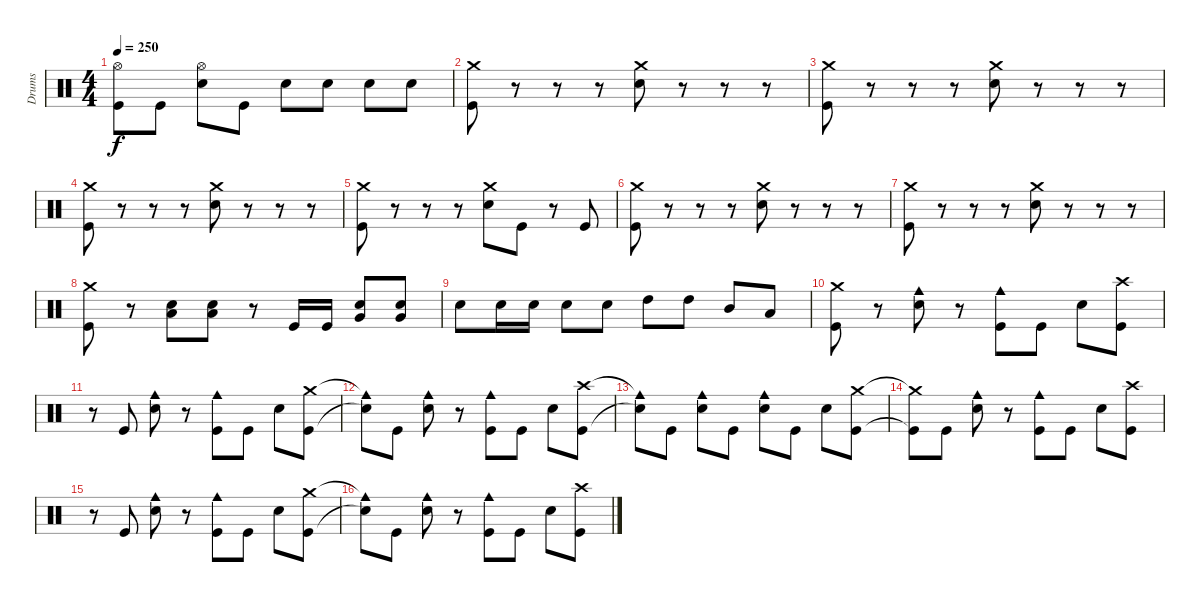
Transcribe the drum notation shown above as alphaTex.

\track ("Drums" "Drums") {instrument percussion}
\staff {score}
\articulation defaults
\ts (4 4)
\tempo 250
\clef neutral
\ks c
("Hi-Hat (open)" "Kick (hit)").8{dy f} "Kick (hit)".8 ("Hi-Hat (open)" "Electric Snare (hit)").8 "Kick (hit)".8 "Electric Snare (hit)".8 "Electric Snare (hit)".8 "Electric Snare (hit)".8 "Electric Snare (hit)".8 |
("Crash medium (hit)" "Kick (hit)").8 r.8 r.8 r.8 ("Crash medium (hit)" "Electric Snare (hit)").8 r.8 r.8 r.8 |
("Crash medium (hit)" "Kick (hit)").8 r.8 r.8 r.8 ("Crash medium (hit)" "Electric Snare (hit)").8 r.8 r.8 r.8 |
("Crash medium (hit)" "Kick (hit)").8 r.8 r.8 r.8 ("Crash medium (hit)" "Electric Snare (hit)").8 r.8 r.8 r.8 |
("Crash medium (hit)" "Kick (hit)").8 r.8 r.8 r.8 ("Crash medium (hit)" "Electric Snare (hit)").8 "Kick (hit)".8 r.8 "Kick (hit)".8 |
("Crash medium (hit)" "Kick (hit)").8 r.8 r.8 r.8 ("Crash medium (hit)" "Electric Snare (hit)").8 r.8 r.8 r.8 |
("Crash medium (hit)" "Kick (hit)").8 r.8 r.8 r.8 ("Crash medium (hit)" "Electric Snare (hit)").8 r.8 r.8 r.8 |
("Crash medium (hit)" "Kick (hit)").8 r.8 ("Low Floor Tom (hit)" "Electric Snare (hit)").8 ("Low Floor Tom (hit)" "Electric Snare (hit)").8 r.8 "Kick (hit)".16 "Kick (hit)".16 ("Very Low Tom (hit)" "Electric Snare (hit)").8 ("Very Low Tom (hit)" "Electric Snare (hit)").8 |
"Electric Snare (hit)".8 "Electric Snare (hit)".16 "Electric Snare (hit)".16 "Electric Snare (hit)".8 "Electric Snare (hit)".8 "High Tom (hit)".8 "High Tom (hit)".8 "Mid Tom (hit)".8 "Low Tom (hit)".8 |
("Crash medium (hit)" "Kick (hit)").8 r.8 ("Cowbell medium (hit)" "Electric Snare (hit)").8 r.8 ("Cowbell medium (hit)" "Kick (hit)").8 "Kick (hit)".8 "Electric Snare (hit)".8 ("Crash high (hit)" "Kick (hit)").8 |
r.8 "Kick (hit)".8 ("Cowbell medium (hit)" "Electric Snare (hit)").8 r.8 ("Cowbell medium (hit)" "Kick (hit)").8 "Kick (hit)".8 "Electric Snare (hit)".8 ("Crash medium (hit)" "Kick (hit)").8 |
("Cowbell medium (hit)"{t} "Snare (hit)"{t}).8 "Kick (hit)".8 ("Cowbell medium (hit)" "Electric Snare (hit)").8 r.8 ("Cowbell medium (hit)" "Kick (hit)").8 "Kick (hit)".8 "Electric Snare (hit)".8 ("Crash high (hit)" "Kick (hit)").8 |
("Cowbell medium (hit)"{t} "Snare (hit)"{t}).8 "Kick (hit)".8 ("Cowbell medium (hit)" "Electric Snare (hit)").8 "Kick (hit)".8 ("Cowbell medium (hit)" "Electric Snare (hit)").8 "Kick (hit)".8 "Electric Snare (hit)".8 ("Crash medium (hit)" "Kick (hit)").8 |
("Crash medium (hit)"{t} "Kick (hit)"{t}).8 "Kick (hit)".8 ("Cowbell medium (hit)" "Electric Snare (hit)").8 r.8 ("Cowbell medium (hit)" "Kick (hit)").8 "Kick (hit)".8 "Electric Snare (hit)".8 ("Crash high (hit)" "Kick (hit)").8 |
r.8 "Kick (hit)".8 ("Cowbell medium (hit)" "Electric Snare (hit)").8 r.8 ("Cowbell medium (hit)" "Kick (hit)").8 "Kick (hit)".8 "Electric Snare (hit)".8 ("Crash medium (hit)" "Kick (hit)").8 |
("Cowbell medium (hit)"{t} "Snare (hit)"{t}).8 "Kick (hit)".8 ("Cowbell medium (hit)" "Electric Snare (hit)").8 r.8 ("Cowbell medium (hit)" "Kick (hit)").8 "Kick (hit)".8 "Electric Snare (hit)".8 ("Crash high (hit)" "Kick (hit)").8
